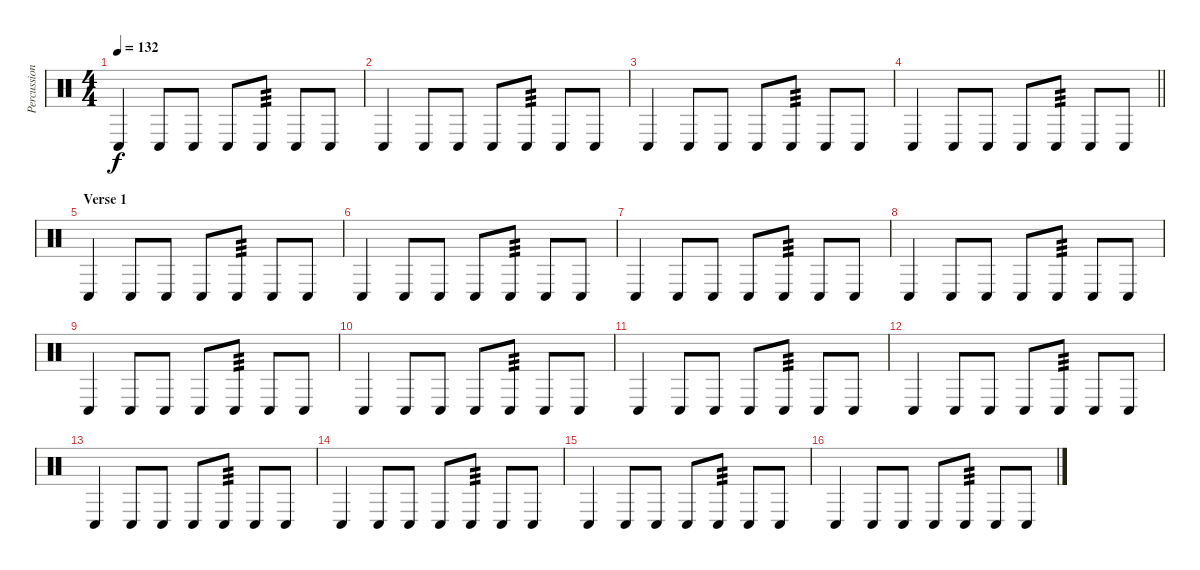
\track ("Percussion" "Percussion") {instrument percussion}
\staff {score}
\articulation defaults
\ts (4 4)
\tempo 132
\clef neutral
\ks c "Conga low (hit)".4{dy f} "Conga low (hit)".8 "Conga low (hit)".8 "Conga low (hit)".8 "Conga low (hit)".8{tp 3} "Conga low (hit)".8 "Conga low (hit)".8
|
"Conga low (hit)".4 "Conga low (hit)".8 "Conga low (hit)".8 "Conga low (hit)".8 "Conga low (hit)".8{tp 3} "Conga low (hit)".8 "Conga low (hit)".8 |
"Conga low (hit)".4 "Conga low (hit)".8 "Conga low (hit)".8 "Conga low (hit)".8 "Conga low (hit)".8{tp 3} "Conga low (hit)".8 "Conga low (hit)".8 |
\barLineRight lightlight "Conga low (hit)".4 "Conga low (hit)".8 "Conga low (hit)".8 "Conga low (hit)".8 "Conga low (hit)".8{tp 3} "Conga low (hit)".8 "Conga low (hit)".8
|
\section ("" "Verse 1")
"Conga low (hit)".4 "Conga low (hit)".8 "Conga low (hit)".8 "Conga low (hit)".8 "Conga low (hit)".8{tp 3} "Conga low (hit)".8 "Conga low (hit)".8 |
"Conga low (hit)".4 "Conga low (hit)".8 "Conga low (hit)".8 "Conga low (hit)".8 "Conga low (hit)".8{tp 3} "Conga low (hit)".8 "Conga low (hit)".8 |
"Conga low (hit)".4 "Conga low (hit)".8 "Conga low (hit)".8 "Conga low (hit)".8 "Conga low (hit)".8{tp 3} "Conga low (hit)".8 "Conga low (hit)".8 |
"Conga low (hit)".4 "Conga low (hit)".8 "Conga low (hit)".8 "Conga low (hit)".8 "Conga low (hit)".8{tp 3} "Conga low (hit)".8 "Conga low (hit)".8 |
"Conga low (hit)".4 "Conga low (hit)".8 "Conga low (hit)".8 "Conga low (hit)".8 "Conga low (hit)".8{tp 3} "Conga low (hit)".8 "Conga low (hit)".8 |
"Conga low (hit)".4 "Conga low (hit)".8 "Conga low (hit)".8 "Conga low (hit)".8 "Conga low (hit)".8{tp 3} "Conga low (hit)".8 "Conga low (hit)".8 |
"Conga low (hit)".4 "Conga low (hit)".8 "Conga low (hit)".8 "Conga low (hit)".8 "Conga low (hit)".8{tp 3} "Conga low (hit)".8 "Conga low (hit)".8 |
"Conga low (hit)".4 "Conga low (hit)".8 "Conga low (hit)".8 "Conga low (hit)".8 "Conga low (hit)".8{tp 3} "Conga low (hit)".8 "Conga low (hit)".8 |
"Conga low (hit)".4 "Conga low (hit)".8 "Conga low (hit)".8 "Conga low (hit)".8 "Conga low (hit)".8{tp 3} "Conga low (hit)".8 "Conga low (hit)".8 |
"Conga low (hit)".4 "Conga low (hit)".8 "Conga low (hit)".8 "Conga low (hit)".8 "Conga low (hit)".8{tp 3} "Conga low (hit)".8 "Conga low (hit)".8 |
"Conga low (hit)".4 "Conga low (hit)".8 "Conga low (hit)".8 "Conga low (hit)".8 "Conga low (hit)".8{tp 3} "Conga low (hit)".8 "Conga low (hit)".8 |
"Conga low (hit)".4 "Conga low (hit)".8 "Conga low (hit)".8 "Conga low (hit)".8 "Conga low (hit)".8{tp 3} "Conga low (hit)".8 "Conga low (hit)".8
